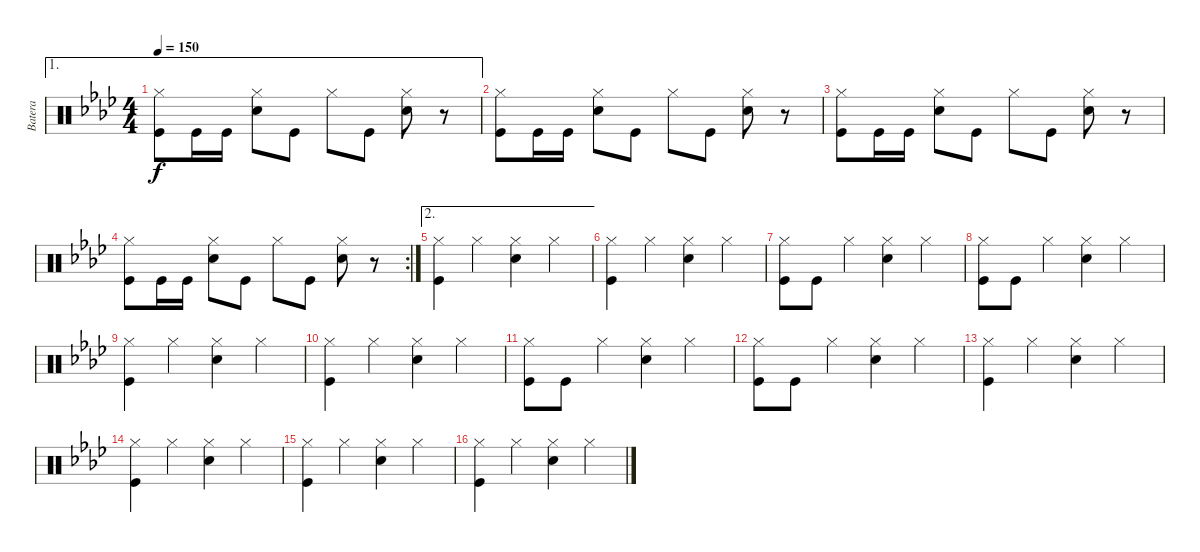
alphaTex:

\track ("Batera" "Batera") {instrument percussion}
\staff {score}
\articulation defaults
\ae 1
\ts (4 4)
\tempo 150
\clef neutral
\ks fminor
("Hi-Hat (closed)" "Kick (hit)").8{dy f} "Kick (hit)".16 "Kick (hit)".16 ("Hi-Hat (closed)" "Snare (hit) 2").8 "Kick (hit)".8 "Hi-Hat (closed)".8 "Kick (hit)".8 ("Hi-Hat (closed)" "Snare (hit) 2").8 r.8 |
("Hi-Hat (closed)" "Kick (hit)").8 "Kick (hit)".16 "Kick (hit)".16 ("Hi-Hat (closed)" "Snare (hit) 2").8 "Kick (hit)".8 "Hi-Hat (closed)".8 "Kick (hit)".8 ("Hi-Hat (closed)" "Snare (hit) 2").8 r.8 |
("Hi-Hat (closed)" "Kick (hit)").8 "Kick (hit)".16 "Kick (hit)".16 ("Hi-Hat (closed)" "Snare (hit) 2").8 "Kick (hit)".8 "Hi-Hat (closed)".8 "Kick (hit)".8 ("Hi-Hat (closed)" "Snare (hit) 2").8 r.8 |
\rc 2
("Hi-Hat (closed)" "Kick (hit)").8 "Kick (hit)".16 "Kick (hit)".16 ("Hi-Hat (closed)" "Snare (hit) 2").8 "Kick (hit)".8 "Hi-Hat (closed)".8 "Kick (hit)".8 ("Hi-Hat (closed)" "Snare (hit) 2").8 r.8 |
\ae 2
("Hi-Hat (closed)" "Kick (hit)").4 "Hi-Hat (closed)".4 ("Hi-Hat (closed)" "Snare (hit) 2").4 "Hi-Hat (closed)".4 |
("Hi-Hat (closed)" "Kick (hit)").4 "Hi-Hat (closed)".4 ("Hi-Hat (closed)" "Snare (hit) 2").4 "Hi-Hat (closed)".4 |
("Hi-Hat (closed)" "Kick (hit)").8 "Kick (hit)".8 "Hi-Hat (closed)".4 ("Hi-Hat (closed)" "Snare (hit) 2").4 "Hi-Hat (closed)".4 |
("Hi-Hat (closed)" "Kick (hit)").8 "Kick (hit)".8 "Hi-Hat (closed)".4 ("Hi-Hat (closed)" "Snare (hit) 2").4 "Hi-Hat (closed)".4 |
("Hi-Hat (closed)" "Kick (hit)").4 "Hi-Hat (closed)".4 ("Hi-Hat (closed)" "Snare (hit) 2").4 "Hi-Hat (closed)".4 |
("Hi-Hat (closed)" "Kick (hit)").4 "Hi-Hat (closed)".4 ("Hi-Hat (closed)" "Snare (hit) 2").4 "Hi-Hat (closed)".4 |
("Hi-Hat (closed)" "Kick (hit)").8 "Kick (hit)".8 "Hi-Hat (closed)".4 ("Hi-Hat (closed)" "Snare (hit) 2").4 "Hi-Hat (closed)".4 |
("Hi-Hat (closed)" "Kick (hit)").8 "Kick (hit)".8 "Hi-Hat (closed)".4 ("Hi-Hat (closed)" "Snare (hit) 2").4 "Hi-Hat (closed)".4 |
("Hi-Hat (closed)" "Kick (hit)").4 "Hi-Hat (closed)".4 ("Hi-Hat (closed)" "Snare (hit) 2").4 "Hi-Hat (closed)".4 |
("Hi-Hat (closed)" "Kick (hit)").4 "Hi-Hat (closed)".4 ("Hi-Hat (closed)" "Snare (hit) 2").4 "Hi-Hat (closed)".4 |
("Hi-Hat (closed)" "Kick (hit)").4 "Hi-Hat (closed)".4 ("Hi-Hat (closed)" "Snare (hit) 2").4 "Hi-Hat (closed)".4 |
("Hi-Hat (closed)" "Kick (hit)").4 "Hi-Hat (closed)".4 ("Hi-Hat (closed)" "Snare (hit) 2").4 "Hi-Hat (closed)".4
